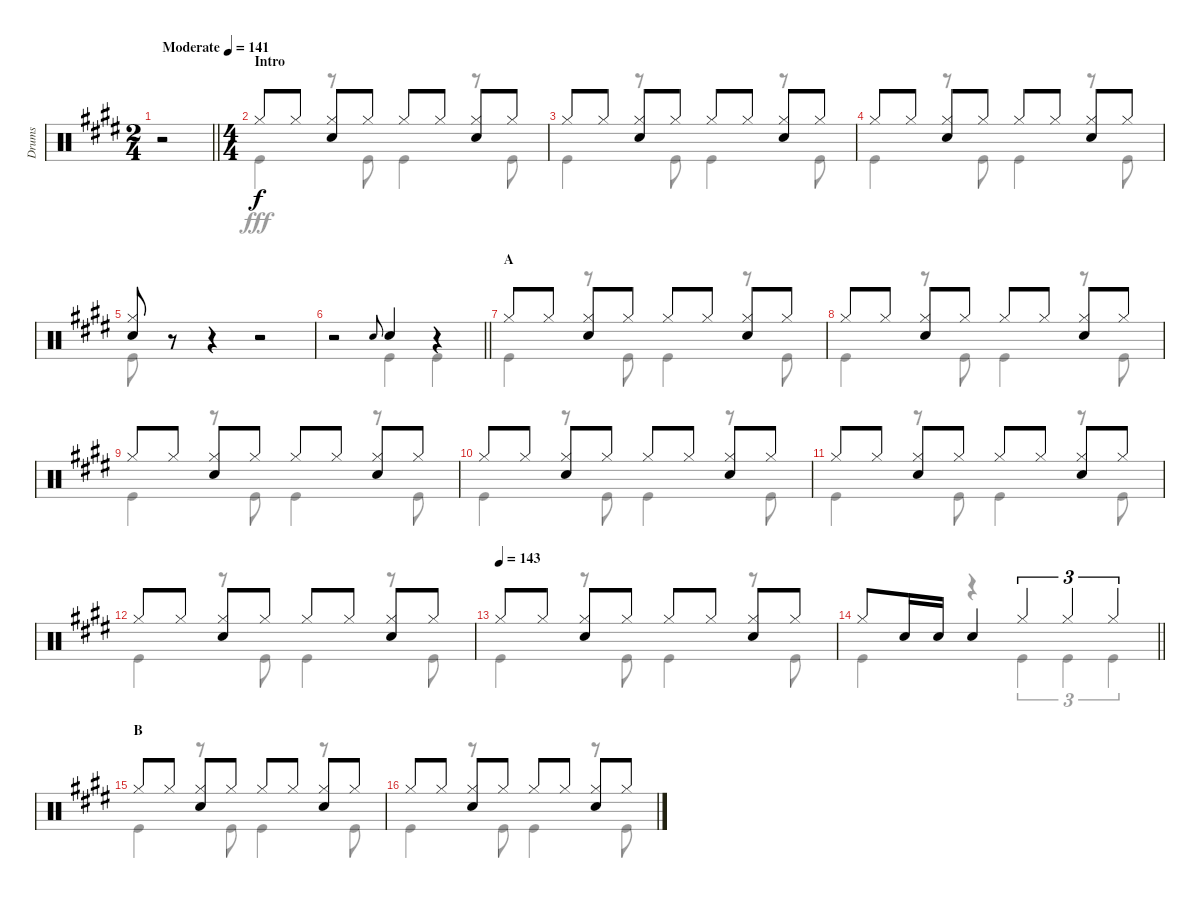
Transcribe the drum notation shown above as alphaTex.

\track ("Drums" "Drums") {instrument percussion}
\staff {score}
\articulation defaults
\voice
\ts (2 4)
\tempo (141 "Moderate")
\clef neutral
\barLineRight lightlight
\ks e
r.2{dy f} |
\ts (4 4)
\section ("" "Intro")
"Hi-Hat (closed)".8 "Hi-Hat (closed)".8 ("Hi-Hat (closed)" "Snare (hit) 2").8 "Hi-Hat (closed)".8 "Hi-Hat (closed)".8 "Hi-Hat (closed)".8 ("Hi-Hat (closed)" "Snare (hit) 2").8 "Hi-Hat (closed)".8 |
"Hi-Hat (closed)".8 "Hi-Hat (closed)".8 ("Hi-Hat (closed)" "Snare (hit) 2").8 "Hi-Hat (closed)".8 "Hi-Hat (closed)".8 "Hi-Hat (closed)".8 ("Hi-Hat (closed)" "Snare (hit) 2").8 "Hi-Hat (closed)".8 |
"Hi-Hat (closed)".8 "Hi-Hat (closed)".8 ("Hi-Hat (closed)" "Snare (hit) 2").8 "Hi-Hat (closed)".8 "Hi-Hat (closed)".8 "Hi-Hat (closed)".8 ("Hi-Hat (closed)" "Snare (hit) 2").8 "Hi-Hat (closed)".8 |
("Hi-Hat (closed)" "Snare (hit) 2").8 r.8 r.4 r.2 |
\barLineRight lightlight
r.2 "Snare (hit) 2".8{gr onbeat} "Snare (hit) 2".4 r.4 |
\section ("" "A")
"Hi-Hat (closed)".8 "Hi-Hat (closed)".8 ("Hi-Hat (closed)" "Snare (hit) 2").8 "Hi-Hat (closed)".8 "Hi-Hat (closed)".8 "Hi-Hat (closed)".8 ("Hi-Hat (closed)" "Snare (hit) 2").8 "Hi-Hat (closed)".8 |
"Hi-Hat (closed)".8 "Hi-Hat (closed)".8 ("Hi-Hat (closed)" "Snare (hit) 2").8 "Hi-Hat (closed)".8 "Hi-Hat (closed)".8 "Hi-Hat (closed)".8 ("Hi-Hat (closed)" "Snare (hit) 2").8 "Hi-Hat (closed)".8 |
"Hi-Hat (closed)".8 "Hi-Hat (closed)".8 ("Hi-Hat (closed)" "Snare (hit) 2").8 "Hi-Hat (closed)".8 "Hi-Hat (closed)".8 "Hi-Hat (closed)".8 ("Hi-Hat (closed)" "Snare (hit) 2").8 "Hi-Hat (closed)".8 |
"Hi-Hat (closed)".8 "Hi-Hat (closed)".8 ("Hi-Hat (closed)" "Snare (hit) 2").8 "Hi-Hat (closed)".8 "Hi-Hat (closed)".8 "Hi-Hat (closed)".8 ("Hi-Hat (closed)" "Snare (hit) 2").8 "Hi-Hat (closed)".8 |
"Hi-Hat (closed)".8 "Hi-Hat (closed)".8 ("Hi-Hat (closed)" "Snare (hit) 2").8 "Hi-Hat (closed)".8 "Hi-Hat (closed)".8 "Hi-Hat (closed)".8 ("Hi-Hat (closed)" "Snare (hit) 2").8 "Hi-Hat (closed)".8 |
"Hi-Hat (closed)".8 "Hi-Hat (closed)".8 ("Hi-Hat (closed)" "Snare (hit) 2").8 "Hi-Hat (closed)".8 "Hi-Hat (closed)".8 "Hi-Hat (closed)".8 ("Hi-Hat (closed)" "Snare (hit) 2").8 "Hi-Hat (closed)".8 |
\tempo (143)
"Hi-Hat (closed)".8 "Hi-Hat (closed)".8 ("Hi-Hat (closed)" "Snare (hit) 2").8 "Hi-Hat (closed)".8 "Hi-Hat (closed)".8 "Hi-Hat (closed)".8 ("Hi-Hat (closed)" "Snare (hit) 2").8 "Hi-Hat (closed)".8 |
\barLineRight lightlight "Hi-Hat (closed)".8 "Snare (hit) 2".16 "Snare (hit) 2".16 "Snare (hit) 2".4 "Hi-Hat (closed)".4{tu (3 2)} "Hi-Hat (closed)".4{tu (3 2)} "Hi-Hat (closed)".4{tu (3 2)}
|
\section ("" "B")
"Hi-Hat (closed)".8 "Hi-Hat (closed)".8 ("Hi-Hat (closed)" "Snare (hit) 2").8 "Hi-Hat (closed)".8 "Hi-Hat (closed)".8 "Hi-Hat (closed)".8 ("Hi-Hat (closed)" "Snare (hit) 2").8 "Hi-Hat (closed)".8 |
"Hi-Hat (closed)".8 "Hi-Hat (closed)".8 ("Hi-Hat (closed)" "Snare (hit) 2").8 "Hi-Hat (closed)".8 "Hi-Hat (closed)".8 "Hi-Hat (closed)".8 ("Hi-Hat (closed)" "Snare (hit) 2").8 "Hi-Hat (closed)".8
\voice
\clef neutral
\ottava regular
\simile none
\barLineRight lightlight
\ks e
r.2{dy fff} |
"Kick (hit)".4 r.8 "Kick (hit)".8 "Kick (hit)".4 r.8 "Kick (hit)".8 |
"Kick (hit)".4 r.8 "Kick (hit)".8 "Kick (hit)".4 r.8 "Kick (hit)".8 |
"Kick (hit)".4 r.8 "Kick (hit)".8 "Kick (hit)".4 r.8 "Kick (hit)".8 |
"Kick (hit)".8 r.8 r.4 r.2 |
\barLineRight lightlight
r.2 "Kick (hit)".4 "Kick (hit)".4 |
"Kick (hit)".4 r.8 "Kick (hit)".8 "Kick (hit)".4 r.8 "Kick (hit)".8 |
"Kick (hit)".4 r.8 "Kick (hit)".8 "Kick (hit)".4 r.8 "Kick (hit)".8 |
"Kick (hit)".4 r.8 "Kick (hit)".8 "Kick (hit)".4 r.8 "Kick (hit)".8 |
"Kick (hit)".4 r.8 "Kick (hit)".8 "Kick (hit)".4 r.8 "Kick (hit)".8 |
"Kick (hit)".4 r.8 "Kick (hit)".8 "Kick (hit)".4 r.8 "Kick (hit)".8 |
"Kick (hit)".4 r.8 "Kick (hit)".8 "Kick (hit)".4 r.8 "Kick (hit)".8 |
"Kick (hit)".4 r.8 "Kick (hit)".8 "Kick (hit)".4 r.8 "Kick (hit)".8 |
\barLineRight lightlight "Kick (hit)".4
r.4 "Kick (hit)".4{tu (3 2)} "Kick (hit)".4{tu (3 2)} "Kick (hit)".4{tu (3 2)} |
"Kick (hit)".4 r.8 "Kick (hit)".8 "Kick (hit)".4 r.8 "Kick (hit)".8 |
"Kick (hit)".4 r.8 "Kick (hit)".8 "Kick (hit)".4 r.8 "Kick (hit)".8
